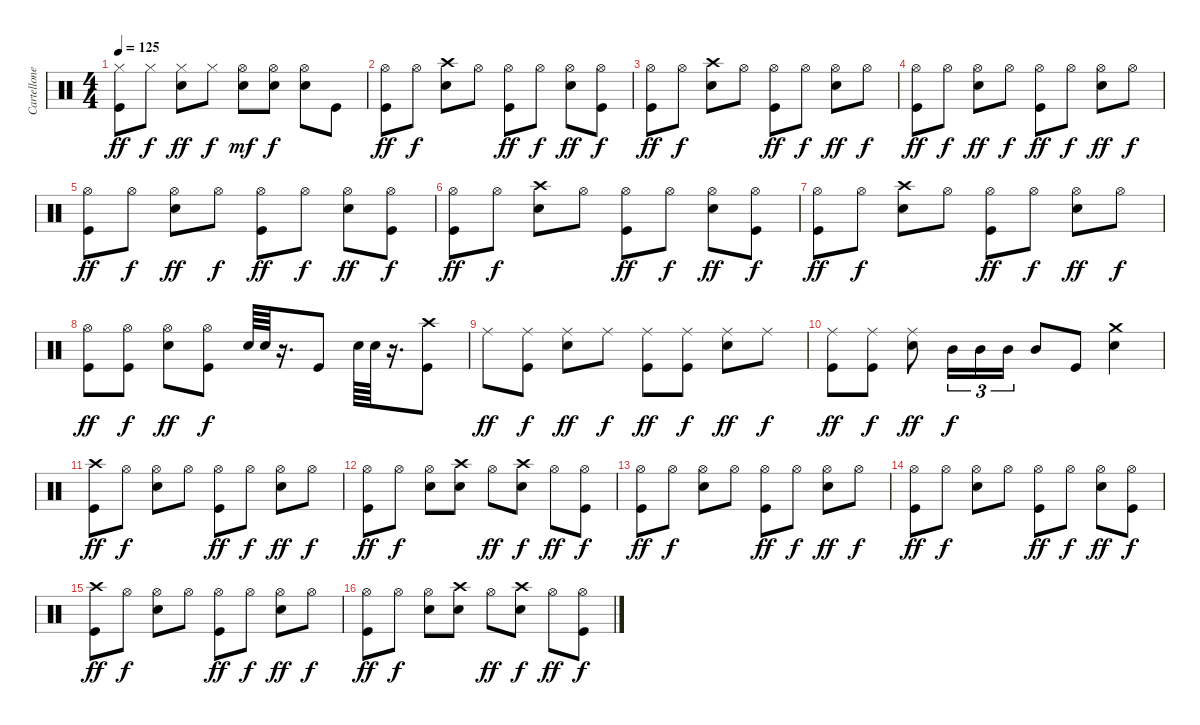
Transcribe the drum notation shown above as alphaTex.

\track ("Cartellone" "Cartellone") {instrument percussion}
\staff {score}
\articulation defaults
\ts (4 4)
\tempo 125
\clef neutral
\ks c
("Hi-Hat (closed)" "Kick (hit)").8{dy ff} "Hi-Hat (closed)".8{dy f} ("Hi-Hat (closed)" "Snare (hit) 2").8{dy ff} "Hi-Hat (closed)".8{dy f} ("Hi-Hat (open)" "Snare (hit) 2").8{dy mf} ("Hi-Hat (open)" "Snare (hit) 2").8{dy f} ("Hi-Hat (open)" "Snare (hit) 2").8 "Kick (hit)".8 |
("Hi-Hat (open)" "Kick (hit)").8{dy ff} "Hi-Hat (open)".8{dy f} ("Crash high (hit)" "Snare (hit) 2").8 "Hi-Hat (open)".8 ("Hi-Hat (open)" "Kick (hit)").8{dy ff} "Hi-Hat (open)".8{dy f} ("Hi-Hat (open)" "Snare (hit) 2").8{dy ff} ("Hi-Hat (open)" "Kick (hit)").8{dy f} |
("Hi-Hat (open)" "Kick (hit)").8{dy ff} "Hi-Hat (open)".8{dy f} ("Crash high (hit)" "Snare (hit) 2").8 "Hi-Hat (open)".8 ("Hi-Hat (open)" "Kick (hit)").8{dy ff} "Hi-Hat (open)".8{dy f} ("Hi-Hat (open)" "Snare (hit) 2").8{dy ff} "Hi-Hat (open)".8{dy f} |
("Hi-Hat (open)" "Kick (hit)").8{dy ff} "Hi-Hat (open)".8{dy f} ("Hi-Hat (open)" "Snare (hit) 2").8{dy ff} "Hi-Hat (open)".8{dy f} ("Hi-Hat (open)" "Kick (hit)").8{dy ff} "Hi-Hat (open)".8{dy f} ("Hi-Hat (open)" "Snare (hit) 2").8{dy ff} "Hi-Hat (open)".8{dy f} |
("Hi-Hat (open)" "Kick (hit)").8{dy ff} "Hi-Hat (open)".8{dy f} ("Hi-Hat (open)" "Snare (hit) 2").8{dy ff} "Hi-Hat (open)".8{dy f} ("Hi-Hat (open)" "Kick (hit)").8{dy ff} "Hi-Hat (open)".8{dy f} ("Hi-Hat (open)" "Snare (hit) 2").8{dy ff} ("Hi-Hat (open)" "Kick (hit)").8{dy f} |
("Hi-Hat (open)" "Kick (hit)").8{dy ff} "Hi-Hat (open)".8{dy f} ("Crash high (hit)" "Snare (hit) 2").8 "Hi-Hat (open)".8 ("Hi-Hat (open)" "Kick (hit)").8{dy ff} "Hi-Hat (open)".8{dy f} ("Hi-Hat (open)" "Snare (hit) 2").8{dy ff} ("Hi-Hat (open)" "Kick (hit)").8{dy f} |
("Hi-Hat (open)" "Kick (hit)").8{dy ff} "Hi-Hat (open)".8{dy f} ("Crash high (hit)" "Snare (hit) 2").8 "Hi-Hat (open)".8 ("Hi-Hat (open)" "Kick (hit)").8{dy ff} "Hi-Hat (open)".8{dy f} ("Hi-Hat (open)" "Snare (hit) 2").8{dy ff} "Hi-Hat (open)".8{dy f} |
("Hi-Hat (open)" "Kick (hit)").8{dy ff} ("Hi-Hat (open)" "Kick (hit)").8{dy f} ("Hi-Hat (open)" "Snare (hit) 2").8{dy ff} ("Hi-Hat (open)" "Kick (hit)").8{dy f} "Snare (hit) 2".64 "Snare (hit) 2".64 r.16{d} "Kick (hit)".8 "Snare (hit) 2".64 "Snare (hit) 2".64 r.16{d} ("Crash high (hit)" "Kick (hit)").8 |
"Ride (middle)".8{dy ff} ("Ride (middle)" "Kick (hit)").8{dy f} ("Ride (middle)" "Snare (hit) 2").8{dy ff} "Ride (middle)".8{dy f} ("Ride (middle)" "Kick (hit)").8{dy ff} ("Ride (middle)" "Kick (hit)").8{dy f} ("Ride (middle)" "Snare (hit) 2").8{dy ff} "Ride (middle)".8{dy f} |
("Ride (middle)" "Kick (hit)").8{dy ff} ("Ride (middle)" "Kick (hit)").8{dy f} ("Ride (middle)" "Snare (hit) 2").8{dy ff} "Mid Tom (hit)".16{tu (3 2) dy f} "Mid Tom (hit)".16{tu (3 2)} "Mid Tom (hit)".16{tu (3 2)} "Mid Tom (hit)".8 "Kick (hit)".8 ("Crash medium (hit)" "Snare (hit) 2").4 |
("Crash high (hit)" "Kick (hit)").8{dy ff} "Hi-Hat (open)".8{dy f} ("Hi-Hat (open)" "Snare (hit) 2").8 "Hi-Hat (open)".8 ("Hi-Hat (open)" "Kick (hit)").8{dy ff} "Hi-Hat (open)".8{dy f} ("Hi-Hat (open)" "Snare (hit) 2").8{dy ff} "Hi-Hat (open)".8{dy f} |
("Hi-Hat (open)" "Kick (hit)").8{dy ff} "Hi-Hat (open)".8{dy f} ("Hi-Hat (open)" "Snare (hit) 2").8 ("Crash high (hit)" "Snare (hit) 2").8 "Hi-Hat (open)".8{dy ff} ("Crash high (hit)" "Snare (hit) 2").8{dy f} "Hi-Hat (open)".8{dy ff} ("Hi-Hat (open)" "Kick (hit)").8{dy f} |
("Hi-Hat (open)" "Kick (hit)").8{dy ff} "Hi-Hat (open)".8{dy f} ("Hi-Hat (open)" "Snare (hit) 2").8 "Hi-Hat (open)".8 ("Hi-Hat (open)" "Kick (hit)").8{dy ff} "Hi-Hat (open)".8{dy f} ("Hi-Hat (open)" "Snare (hit) 2").8{dy ff} "Hi-Hat (open)".8{dy f} |
("Hi-Hat (open)" "Kick (hit)").8{dy ff} "Hi-Hat (open)".8{dy f} ("Hi-Hat (open)" "Snare (hit) 2").8 "Hi-Hat (open)".8 ("Hi-Hat (open)" "Kick (hit)").8{dy ff} "Hi-Hat (open)".8{dy f} ("Hi-Hat (open)" "Snare (hit) 2").8{dy ff} ("Hi-Hat (open)" "Kick (hit)").8{dy f} |
("Crash high (hit)" "Kick (hit)").8{dy ff} "Hi-Hat (open)".8{dy f} ("Hi-Hat (open)" "Snare (hit) 2").8 "Hi-Hat (open)".8 ("Hi-Hat (open)" "Kick (hit)").8{dy ff} "Hi-Hat (open)".8{dy f} ("Hi-Hat (open)" "Snare (hit) 2").8{dy ff} "Hi-Hat (open)".8{dy f} |
("Hi-Hat (open)" "Kick (hit)").8{dy ff} "Hi-Hat (open)".8{dy f} ("Hi-Hat (open)" "Snare (hit) 2").8 ("Crash high (hit)" "Snare (hit) 2").8 "Hi-Hat (open)".8{dy ff} ("Crash high (hit)" "Snare (hit) 2").8{dy f} "Hi-Hat (open)".8{dy ff} ("Hi-Hat (open)" "Kick (hit)").8{dy f}
